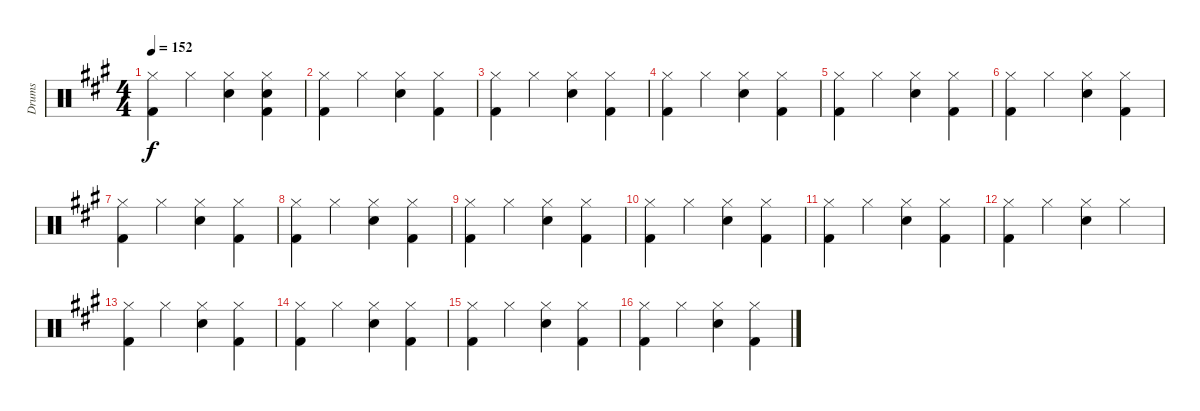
\track ("Drums" "Drums") {instrument percussion}
\staff {score}
\articulation defaults
\ts (4 4)
\tempo 152
\clef neutral
\ks a
("Hi-Hat (closed)" "Kick (hit) 2").4{dy f} "Hi-Hat (closed)".4 ("Hi-Hat (closed)" "Electric Snare (hit)").4 ("Hi-Hat (closed)" "Electric Snare (hit)" "Kick (hit) 2").4 |
("Hi-Hat (closed)" "Kick (hit) 2").4 "Hi-Hat (closed)".4 ("Hi-Hat (closed)" "Electric Snare (hit)").4 ("Hi-Hat (closed)" "Kick (hit) 2").4 |
("Hi-Hat (closed)" "Kick (hit) 2").4 "Hi-Hat (closed)".4 ("Hi-Hat (closed)" "Electric Snare (hit)").4 ("Hi-Hat (closed)" "Kick (hit) 2").4 |
("Hi-Hat (closed)" "Kick (hit) 2").4 "Hi-Hat (closed)".4 ("Hi-Hat (closed)" "Electric Snare (hit)").4 ("Hi-Hat (closed)" "Kick (hit) 2").4 |
("Hi-Hat (closed)" "Kick (hit) 2").4 "Hi-Hat (closed)".4 ("Hi-Hat (closed)" "Electric Snare (hit)").4 ("Hi-Hat (closed)" "Kick (hit) 2").4 |
("Hi-Hat (closed)" "Kick (hit) 2").4 "Hi-Hat (closed)".4 ("Hi-Hat (closed)" "Electric Snare (hit)").4 ("Hi-Hat (closed)" "Kick (hit) 2").4 |
("Hi-Hat (closed)" "Kick (hit) 2").4 "Hi-Hat (closed)".4 ("Hi-Hat (closed)" "Electric Snare (hit)").4 ("Hi-Hat (closed)" "Kick (hit) 2").4 |
("Hi-Hat (closed)" "Kick (hit) 2").4 "Hi-Hat (closed)".4 ("Hi-Hat (closed)" "Electric Snare (hit)").4 ("Hi-Hat (closed)" "Kick (hit) 2").4 |
("Hi-Hat (closed)" "Kick (hit) 2").4 "Hi-Hat (closed)".4 ("Hi-Hat (closed)" "Electric Snare (hit)").4 ("Hi-Hat (closed)" "Kick (hit) 2").4 |
("Hi-Hat (closed)" "Kick (hit) 2").4 "Hi-Hat (closed)".4 ("Hi-Hat (closed)" "Electric Snare (hit)").4 ("Hi-Hat (closed)" "Kick (hit) 2").4 |
("Hi-Hat (closed)" "Kick (hit) 2").4 "Hi-Hat (closed)".4 ("Hi-Hat (closed)" "Electric Snare (hit)").4 ("Hi-Hat (closed)" "Kick (hit) 2").4 |
("Hi-Hat (closed)" "Kick (hit) 2").4 "Hi-Hat (closed)".4 ("Hi-Hat (closed)" "Electric Snare (hit)").4 "Hi-Hat (closed)".4 |
("Hi-Hat (closed)" "Kick (hit) 2").4 "Hi-Hat (closed)".4 ("Hi-Hat (closed)" "Electric Snare (hit)").4 ("Hi-Hat (closed)" "Kick (hit) 2").4 |
("Hi-Hat (closed)" "Kick (hit) 2").4 "Hi-Hat (closed)".4 ("Hi-Hat (closed)" "Electric Snare (hit)").4 ("Hi-Hat (closed)" "Kick (hit) 2").4 |
("Hi-Hat (closed)" "Kick (hit) 2").4 "Hi-Hat (closed)".4 ("Hi-Hat (closed)" "Electric Snare (hit)").4 ("Hi-Hat (closed)" "Kick (hit) 2").4 |
("Hi-Hat (closed)" "Kick (hit) 2").4 "Hi-Hat (closed)".4 ("Hi-Hat (closed)" "Electric Snare (hit)").4 ("Hi-Hat (closed)" "Kick (hit) 2").4
